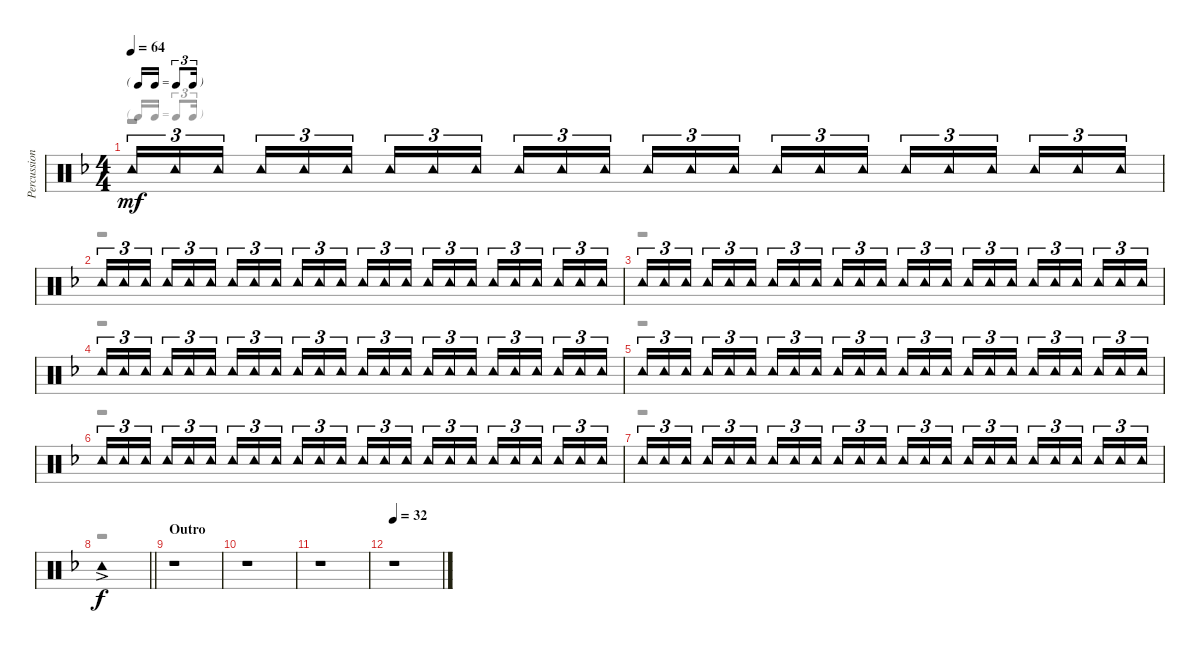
\track ("Percussion" "Percussion") {instrument percussion}
\staff {score}
\articulation defaults
\voice
\ts (4 4)
\tf triplet16th
\tempo 64
\clef neutral
\ks f "Tambourine (hit)".16{tu (3 2) dy mf} "Tambourine (hit)".16{tu (3 2)} "Tambourine (hit)".16{tu (3 2) beam splitsecondary} "Tambourine (hit)".16{tu (3 2)} "Tambourine (hit)".16{tu (3 2)} "Tambourine (hit)".16{tu (3 2)} "Tambourine (hit)".16{tu (3 2)} "Tambourine (hit)".16{tu (3 2)} "Tambourine (hit)".16{tu (3 2) beam splitsecondary} "Tambourine (hit)".16{tu (3 2)} "Tambourine (hit)".16{tu (3 2)} "Tambourine (hit)".16{tu (3 2)} "Tambourine (hit)".16{tu (3 2)} "Tambourine (hit)".16{tu (3 2)} "Tambourine (hit)".16{tu (3 2) beam splitsecondary} "Tambourine (hit)".16{tu (3 2)} "Tambourine (hit)".16{tu (3 2)} "Tambourine (hit)".16{tu (3 2)} "Tambourine (hit)".16{tu (3 2)} "Tambourine (hit)".16{tu (3 2)} "Tambourine (hit)".16{tu (3 2) beam splitsecondary} "Tambourine (hit)".16{tu (3 2)} "Tambourine (hit)".16{tu (3 2)} "Tambourine (hit)".16{tu (3 2)}
|
"Tambourine (hit)".16{tu (3 2)} "Tambourine (hit)".16{tu (3 2)} "Tambourine (hit)".16{tu (3 2) beam splitsecondary} "Tambourine (hit)".16{tu (3 2)} "Tambourine (hit)".16{tu (3 2)} "Tambourine (hit)".16{tu (3 2)} "Tambourine (hit)".16{tu (3 2)} "Tambourine (hit)".16{tu (3 2)} "Tambourine (hit)".16{tu (3 2) beam splitsecondary} "Tambourine (hit)".16{tu (3 2)} "Tambourine (hit)".16{tu (3 2)} "Tambourine (hit)".16{tu (3 2)} "Tambourine (hit)".16{tu (3 2)} "Tambourine (hit)".16{tu (3 2)} "Tambourine (hit)".16{tu (3 2) beam splitsecondary} "Tambourine (hit)".16{tu (3 2)} "Tambourine (hit)".16{tu (3 2)} "Tambourine (hit)".16{tu (3 2)} "Tambourine (hit)".16{tu (3 2)} "Tambourine (hit)".16{tu (3 2)} "Tambourine (hit)".16{tu (3 2) beam splitsecondary} "Tambourine (hit)".16{tu (3 2)} "Tambourine (hit)".16{tu (3 2)} "Tambourine (hit)".16{tu (3 2)} |
"Tambourine (hit)".16{tu (3 2)} "Tambourine (hit)".16{tu (3 2)} "Tambourine (hit)".16{tu (3 2) beam splitsecondary} "Tambourine (hit)".16{tu (3 2)} "Tambourine (hit)".16{tu (3 2)} "Tambourine (hit)".16{tu (3 2)} "Tambourine (hit)".16{tu (3 2)} "Tambourine (hit)".16{tu (3 2)} "Tambourine (hit)".16{tu (3 2) beam splitsecondary} "Tambourine (hit)".16{tu (3 2)} "Tambourine (hit)".16{tu (3 2)} "Tambourine (hit)".16{tu (3 2)} "Tambourine (hit)".16{tu (3 2)} "Tambourine (hit)".16{tu (3 2)} "Tambourine (hit)".16{tu (3 2) beam splitsecondary} "Tambourine (hit)".16{tu (3 2)} "Tambourine (hit)".16{tu (3 2)} "Tambourine (hit)".16{tu (3 2)} "Tambourine (hit)".16{tu (3 2)} "Tambourine (hit)".16{tu (3 2)} "Tambourine (hit)".16{tu (3 2) beam splitsecondary} "Tambourine (hit)".16{tu (3 2)} "Tambourine (hit)".16{tu (3 2)} "Tambourine (hit)".16{tu (3 2)} |
"Tambourine (hit)".16{tu (3 2)} "Tambourine (hit)".16{tu (3 2)} "Tambourine (hit)".16{tu (3 2) beam splitsecondary} "Tambourine (hit)".16{tu (3 2)} "Tambourine (hit)".16{tu (3 2)} "Tambourine (hit)".16{tu (3 2)} "Tambourine (hit)".16{tu (3 2)} "Tambourine (hit)".16{tu (3 2)} "Tambourine (hit)".16{tu (3 2) beam splitsecondary} "Tambourine (hit)".16{tu (3 2)} "Tambourine (hit)".16{tu (3 2)} "Tambourine (hit)".16{tu (3 2)} "Tambourine (hit)".16{tu (3 2)} "Tambourine (hit)".16{tu (3 2)} "Tambourine (hit)".16{tu (3 2) beam splitsecondary} "Tambourine (hit)".16{tu (3 2)} "Tambourine (hit)".16{tu (3 2)} "Tambourine (hit)".16{tu (3 2)} "Tambourine (hit)".16{tu (3 2)} "Tambourine (hit)".16{tu (3 2)} "Tambourine (hit)".16{tu (3 2) beam splitsecondary} "Tambourine (hit)".16{tu (3 2)} "Tambourine (hit)".16{tu (3 2)} "Tambourine (hit)".16{tu (3 2)} |
"Tambourine (hit)".16{tu (3 2)} "Tambourine (hit)".16{tu (3 2)} "Tambourine (hit)".16{tu (3 2) beam splitsecondary} "Tambourine (hit)".16{tu (3 2)} "Tambourine (hit)".16{tu (3 2)} "Tambourine (hit)".16{tu (3 2)} "Tambourine (hit)".16{tu (3 2)} "Tambourine (hit)".16{tu (3 2)} "Tambourine (hit)".16{tu (3 2) beam splitsecondary} "Tambourine (hit)".16{tu (3 2)} "Tambourine (hit)".16{tu (3 2)} "Tambourine (hit)".16{tu (3 2)} "Tambourine (hit)".16{tu (3 2)} "Tambourine (hit)".16{tu (3 2)} "Tambourine (hit)".16{tu (3 2) beam splitsecondary} "Tambourine (hit)".16{tu (3 2)} "Tambourine (hit)".16{tu (3 2)} "Tambourine (hit)".16{tu (3 2)} "Tambourine (hit)".16{tu (3 2)} "Tambourine (hit)".16{tu (3 2)} "Tambourine (hit)".16{tu (3 2) beam splitsecondary} "Tambourine (hit)".16{tu (3 2)} "Tambourine (hit)".16{tu (3 2)} "Tambourine (hit)".16{tu (3 2)} |
"Tambourine (hit)".16{tu (3 2)} "Tambourine (hit)".16{tu (3 2)} "Tambourine (hit)".16{tu (3 2) beam splitsecondary} "Tambourine (hit)".16{tu (3 2)} "Tambourine (hit)".16{tu (3 2)} "Tambourine (hit)".16{tu (3 2)} "Tambourine (hit)".16{tu (3 2)} "Tambourine (hit)".16{tu (3 2)} "Tambourine (hit)".16{tu (3 2) beam splitsecondary} "Tambourine (hit)".16{tu (3 2)} "Tambourine (hit)".16{tu (3 2)} "Tambourine (hit)".16{tu (3 2)} "Tambourine (hit)".16{tu (3 2)} "Tambourine (hit)".16{tu (3 2)} "Tambourine (hit)".16{tu (3 2) beam splitsecondary} "Tambourine (hit)".16{tu (3 2)} "Tambourine (hit)".16{tu (3 2)} "Tambourine (hit)".16{tu (3 2)} "Tambourine (hit)".16{tu (3 2)} "Tambourine (hit)".16{tu (3 2)} "Tambourine (hit)".16{tu (3 2) beam splitsecondary} "Tambourine (hit)".16{tu (3 2)} "Tambourine (hit)".16{tu (3 2)} "Tambourine (hit)".16{tu (3 2)} |
"Tambourine (hit)".16{tu (3 2)} "Tambourine (hit)".16{tu (3 2)} "Tambourine (hit)".16{tu (3 2) beam splitsecondary} "Tambourine (hit)".16{tu (3 2)} "Tambourine (hit)".16{tu (3 2)} "Tambourine (hit)".16{tu (3 2)} "Tambourine (hit)".16{tu (3 2)} "Tambourine (hit)".16{tu (3 2)} "Tambourine (hit)".16{tu (3 2) beam splitsecondary} "Tambourine (hit)".16{tu (3 2)} "Tambourine (hit)".16{tu (3 2)} "Tambourine (hit)".16{tu (3 2)} "Tambourine (hit)".16{tu (3 2)} "Tambourine (hit)".16{tu (3 2)} "Tambourine (hit)".16{tu (3 2) beam splitsecondary} "Tambourine (hit)".16{tu (3 2)} "Tambourine (hit)".16{tu (3 2)} "Tambourine (hit)".16{tu (3 2)} "Tambourine (hit)".16{tu (3 2)} "Tambourine (hit)".16{tu (3 2)} "Tambourine (hit)".16{tu (3 2) beam splitsecondary} "Tambourine (hit)".16{tu (3 2)} "Tambourine (hit)".16{tu (3 2)} "Tambourine (hit)".16{tu (3 2)} |
\barLineRight lightlight "Tambourine (hit)"{ac}.1{dy f}
|
\section ("" "Outro")
r.1 |
r.1 |
r.1 |
\tempo 32
r.1
\voice
\clef neutral
\ottava regular
\simile none
\ks f
r.1{dy mp} |
r.1 |
r.1 |
r.1 |
r.1 |
r.1 |
r.1 |
\barLineRight lightlight
r.1 |
r.1 |
r.1 |
r.1 |
r.1
